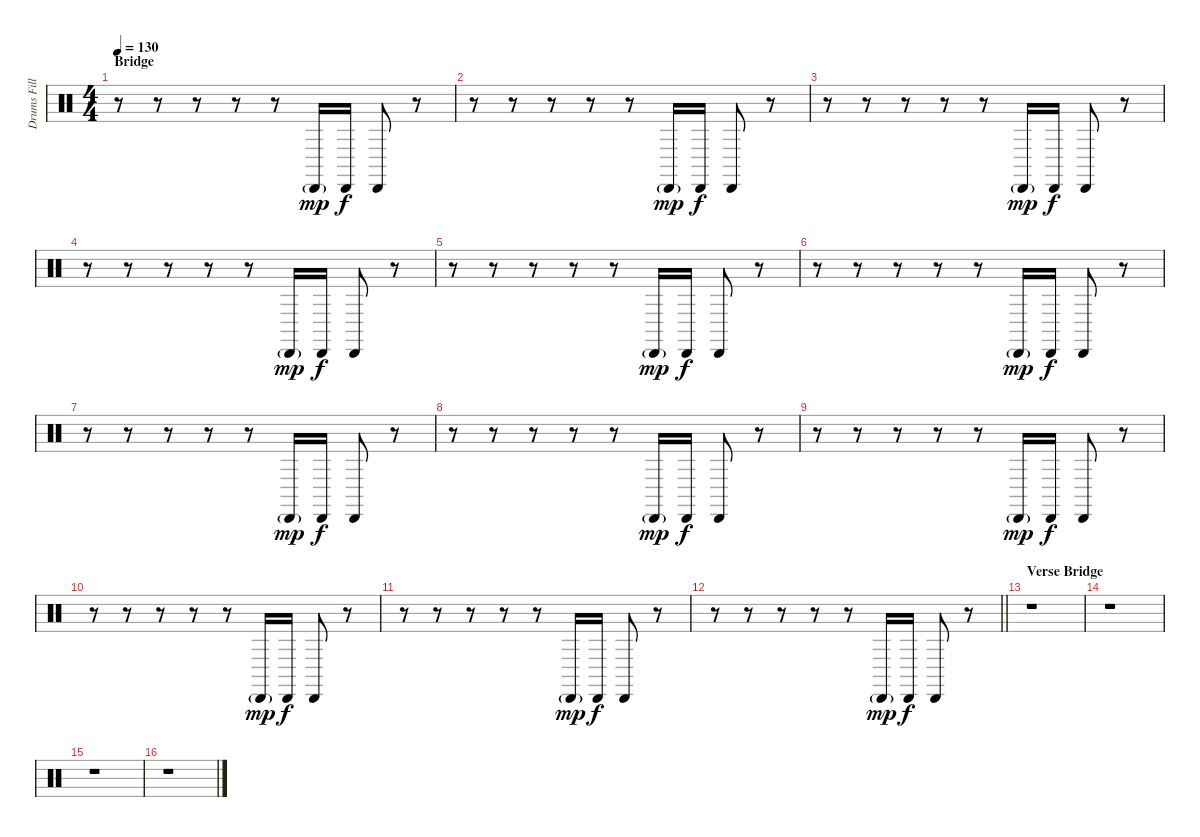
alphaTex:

\track ("Drums Fill" "Drums Fill") {instrument percussion}
\staff {score}
\articulation defaults
\ts (4 4)
\section ("" "Bridge")
\tempo 130
\clef neutral
\ks c
r.8{dy f} r.8 r.8 r.8 r.8 "Cabasa (hit)"{g}.16{dy mp} "Cabasa (hit)".16{dy f} "Cabasa (hit)".8 r.8 |
r.8 r.8 r.8 r.8 r.8 "Cabasa (hit)"{g}.16{dy mp} "Cabasa (hit)".16{dy f} "Cabasa (hit)".8 r.8 |
r.8 r.8 r.8 r.8 r.8 "Cabasa (hit)"{g}.16{dy mp} "Cabasa (hit)".16{dy f} "Cabasa (hit)".8 r.8 |
r.8 r.8 r.8 r.8 r.8 "Cabasa (hit)"{g}.16{dy mp} "Cabasa (hit)".16{dy f} "Cabasa (hit)".8 r.8 |
r.8 r.8 r.8 r.8 r.8 "Cabasa (hit)"{g}.16{dy mp} "Cabasa (hit)".16{dy f} "Cabasa (hit)".8 r.8 |
r.8 r.8 r.8 r.8 r.8 "Cabasa (hit)"{g}.16{dy mp} "Cabasa (hit)".16{dy f} "Cabasa (hit)".8 r.8 |
r.8 r.8 r.8 r.8 r.8 "Cabasa (hit)"{g}.16{dy mp} "Cabasa (hit)".16{dy f} "Cabasa (hit)".8 r.8 |
r.8 r.8 r.8 r.8 r.8 "Cabasa (hit)"{g}.16{dy mp} "Cabasa (hit)".16{dy f} "Cabasa (hit)".8 r.8 |
r.8 r.8 r.8 r.8 r.8 "Cabasa (hit)"{g}.16{dy mp} "Cabasa (hit)".16{dy f} "Cabasa (hit)".8 r.8 |
r.8 r.8 r.8 r.8 r.8 "Cabasa (hit)"{g}.16{dy mp} "Cabasa (hit)".16{dy f} "Cabasa (hit)".8 r.8 |
r.8 r.8 r.8 r.8 r.8 "Cabasa (hit)"{g}.16{dy mp} "Cabasa (hit)".16{dy f} "Cabasa (hit)".8 r.8 |
\barLineRight lightlight
r.8 r.8 r.8 r.8 r.8 "Cabasa (hit)"{g}.16{dy mp} "Cabasa (hit)".16{dy f} "Cabasa (hit)".8 r.8 |
\section ("" "Verse Bridge")
r.1 |
r.1 |
r.1 |
r.1
